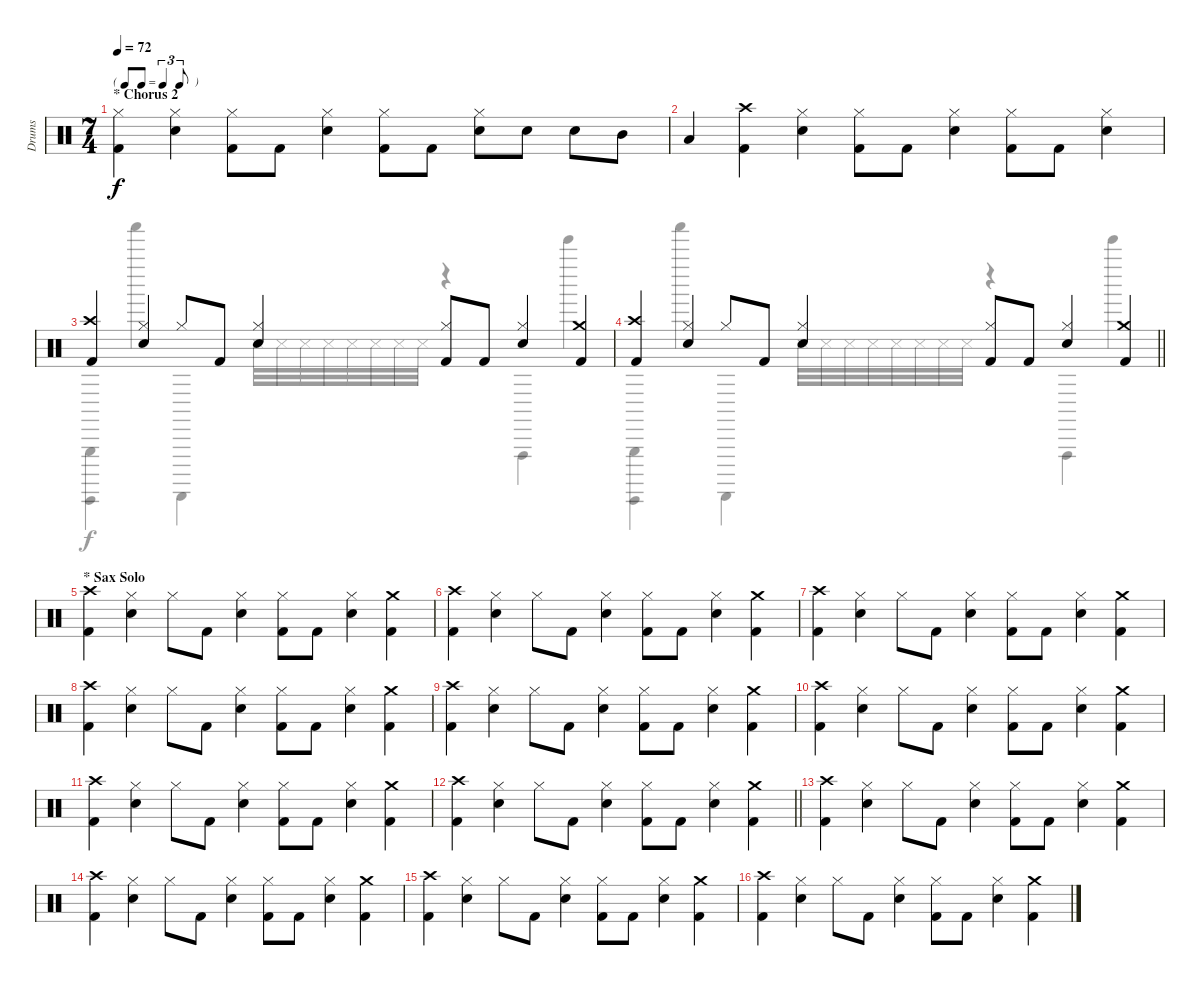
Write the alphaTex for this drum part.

\track ("Drums" "Drums") {instrument percussion}
\staff {score}
\articulation defaults
\voice
\ts (7 4)
\tf triplet8th
\section ("" "* Chorus 2")
\tempo 72
\clef neutral
\ks c
("Hi-Hat (closed)" "Kick (hit) 2").4{dy f} ("Hi-Hat (closed)" "Electric Snare (hit)").4 ("Hi-Hat (closed)" "Kick (hit) 2").8 "Kick (hit) 2".8 ("Hi-Hat (closed)" "Electric Snare (hit)").4 ("Hi-Hat (closed)" "Kick (hit) 2").8 "Kick (hit) 2".8 ("Hi-Hat (closed)" "Electric Snare (hit)").8 "Electric Snare (hit)".8 "Electric Snare (hit)".8 "Mid Tom (hit)".8 |
"Low Tom (hit)".4 ("Crash high (hit)" "Kick (hit) 2").4 ("Hi-Hat (closed)" "Electric Snare (hit)").4 ("Hi-Hat (closed)" "Kick (hit) 2").8 "Kick (hit) 2".8 ("Hi-Hat (closed)" "Electric Snare (hit)").4 ("Hi-Hat (closed)" "Kick (hit) 2").8 "Kick (hit) 2".8 ("Hi-Hat (closed)" "Electric Snare (hit)").4 |
("Crash high (hit)" "Kick (hit) 2").4 ("Hi-Hat (closed)" "Electric Snare (hit)").4 "Hi-Hat (closed)".8 "Kick (hit) 2".8 ("Hi-Hat (closed)" "Electric Snare (hit)").4 ("Hi-Hat (closed)" "Kick (hit) 2").8 "Kick (hit) 2".8 ("Hi-Hat (closed)" "Electric Snare (hit)").4 ("Crash medium (hit)" "Kick (hit) 2").4 |
\barLineRight lightlight
("Crash high (hit)" "Kick (hit) 2").4 ("Hi-Hat (closed)" "Electric Snare (hit)").4 "Hi-Hat (closed)".8 "Kick (hit) 2".8 ("Hi-Hat (closed)" "Electric Snare (hit)").4 ("Hi-Hat (closed)" "Kick (hit) 2").8 "Kick (hit) 2".8 ("Hi-Hat (closed)" "Electric Snare (hit)").4 ("Crash medium (hit)" "Kick (hit) 2").4 |
\section ("" "* Sax Solo")
("Crash high (hit)" "Kick (hit) 2").4 ("Hi-Hat (closed)" "Electric Snare (hit)").4 "Hi-Hat (closed)".8 "Kick (hit) 2".8 ("Hi-Hat (closed)" "Electric Snare (hit)").4 ("Hi-Hat (closed)" "Kick (hit) 2").8 "Kick (hit) 2".8 ("Hi-Hat (closed)" "Electric Snare (hit)").4 ("Crash medium (hit)" "Kick (hit) 2").4 |
("Crash high (hit)" "Kick (hit) 2").4 ("Hi-Hat (closed)" "Electric Snare (hit)").4 "Hi-Hat (closed)".8 "Kick (hit) 2".8 ("Hi-Hat (closed)" "Electric Snare (hit)").4 ("Hi-Hat (closed)" "Kick (hit) 2").8 "Kick (hit) 2".8 ("Hi-Hat (closed)" "Electric Snare (hit)").4 ("Crash medium (hit)" "Kick (hit) 2").4 |
("Crash high (hit)" "Kick (hit) 2").4 ("Hi-Hat (closed)" "Electric Snare (hit)").4 "Hi-Hat (closed)".8 "Kick (hit) 2".8 ("Hi-Hat (closed)" "Electric Snare (hit)").4 ("Hi-Hat (closed)" "Kick (hit) 2").8 "Kick (hit) 2".8 ("Hi-Hat (closed)" "Electric Snare (hit)").4 ("Crash medium (hit)" "Kick (hit) 2").4 |
("Crash high (hit)" "Kick (hit) 2").4 ("Hi-Hat (closed)" "Electric Snare (hit)").4 "Hi-Hat (closed)".8 "Kick (hit) 2".8 ("Hi-Hat (closed)" "Electric Snare (hit)").4 ("Hi-Hat (closed)" "Kick (hit) 2").8 "Kick (hit) 2".8 ("Hi-Hat (closed)" "Electric Snare (hit)").4 ("Crash medium (hit)" "Kick (hit) 2").4 |
("Crash high (hit)" "Kick (hit) 2").4 ("Hi-Hat (closed)" "Electric Snare (hit)").4 "Hi-Hat (closed)".8 "Kick (hit) 2".8 ("Hi-Hat (closed)" "Electric Snare (hit)").4 ("Hi-Hat (closed)" "Kick (hit) 2").8 "Kick (hit) 2".8 ("Hi-Hat (closed)" "Electric Snare (hit)").4 ("Crash medium (hit)" "Kick (hit) 2").4 |
("Crash high (hit)" "Kick (hit) 2").4 ("Hi-Hat (closed)" "Electric Snare (hit)").4 "Hi-Hat (closed)".8 "Kick (hit) 2".8 ("Hi-Hat (closed)" "Electric Snare (hit)").4 ("Hi-Hat (closed)" "Kick (hit) 2").8 "Kick (hit) 2".8 ("Hi-Hat (closed)" "Electric Snare (hit)").4 ("Crash medium (hit)" "Kick (hit) 2").4 |
("Crash high (hit)" "Kick (hit) 2").4 ("Hi-Hat (closed)" "Electric Snare (hit)").4 "Hi-Hat (closed)".8 "Kick (hit) 2".8 ("Hi-Hat (closed)" "Electric Snare (hit)").4 ("Hi-Hat (closed)" "Kick (hit) 2").8 "Kick (hit) 2".8 ("Hi-Hat (closed)" "Electric Snare (hit)").4 ("Crash medium (hit)" "Kick (hit) 2").4 |
\barLineRight lightlight
("Crash high (hit)" "Kick (hit) 2").4 ("Hi-Hat (closed)" "Electric Snare (hit)").4 "Hi-Hat (closed)".8 "Kick (hit) 2".8 ("Hi-Hat (closed)" "Electric Snare (hit)").4 ("Hi-Hat (closed)" "Kick (hit) 2").8 "Kick (hit) 2".8 ("Hi-Hat (closed)" "Electric Snare (hit)").4 ("Crash medium (hit)" "Kick (hit) 2").4 |
("Crash high (hit)" "Kick (hit) 2").4 ("Hi-Hat (closed)" "Electric Snare (hit)").4 "Hi-Hat (closed)".8 "Kick (hit) 2".8 ("Hi-Hat (closed)" "Electric Snare (hit)").4 ("Hi-Hat (closed)" "Kick (hit) 2").8 "Kick (hit) 2".8 ("Hi-Hat (closed)" "Electric Snare (hit)").4 ("Crash medium (hit)" "Kick (hit) 2").4 |
("Crash high (hit)" "Kick (hit) 2").4 ("Hi-Hat (closed)" "Electric Snare (hit)").4 "Hi-Hat (closed)".8 "Kick (hit) 2".8 ("Hi-Hat (closed)" "Electric Snare (hit)").4 ("Hi-Hat (closed)" "Kick (hit) 2").8 "Kick (hit) 2".8 ("Hi-Hat (closed)" "Electric Snare (hit)").4 ("Crash medium (hit)" "Kick (hit) 2").4 |
("Crash high (hit)" "Kick (hit) 2").4 ("Hi-Hat (closed)" "Electric Snare (hit)").4 "Hi-Hat (closed)".8 "Kick (hit) 2".8 ("Hi-Hat (closed)" "Electric Snare (hit)").4 ("Hi-Hat (closed)" "Kick (hit) 2").8 "Kick (hit) 2".8 ("Hi-Hat (closed)" "Electric Snare (hit)").4 ("Crash medium (hit)" "Kick (hit) 2").4 |
("Crash high (hit)" "Kick (hit) 2").4 ("Hi-Hat (closed)" "Electric Snare (hit)").4 "Hi-Hat (closed)".8 "Kick (hit) 2".8 ("Hi-Hat (closed)" "Electric Snare (hit)").4 ("Hi-Hat (closed)" "Kick (hit) 2").8 "Kick (hit) 2".8 ("Hi-Hat (closed)" "Electric Snare (hit)").4 ("Crash medium (hit)" "Kick (hit) 2").4
\voice
\clef neutral
\ottava regular
\simile none
\ks c
|
|
("Triangle (hit)" "Guiro (hit)").4 "Shaker (hit)".4 "Guiro (scrap-return)".4 "Snare (side stick) 3".32 "Snare (side stick) 3".32 "Snare (side stick) 3".32 "Snare (side stick) 3".32 "Snare (side stick) 3".32 "Snare (side stick) 3".32 "Snare (side stick) 3".32 "Snare (side stick) 3".32 r.4 "Vibraslap (hit)".4 "Tinkle Bell (hit)".4 |
\barLineRight lightlight
("Triangle (hit)" "Guiro (hit)").4 "Shaker (hit)".4 "Guiro (scrap-return)".4 "Snare (side stick) 3".32 "Snare (side stick) 3".32 "Snare (side stick) 3".32 "Snare (side stick) 3".32 "Snare (side stick) 3".32 "Snare (side stick) 3".32 "Snare (side stick) 3".32 "Snare (side stick) 3".32 r.4 "Vibraslap (hit)".4 "Tinkle Bell (hit)".4 |
|
|
|
|
|
|
|
\barLineRight lightlight
|
|
|
|
